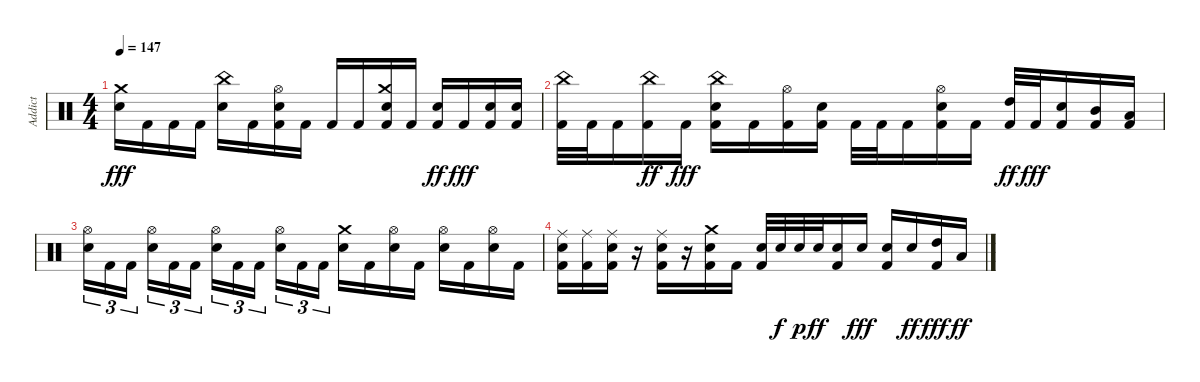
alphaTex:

\track ("Addict" "Addict") {instrument percussion}
\staff {score}
\articulation defaults
\ts (4 4)
\tempo 147
\clef neutral
\ks c
("Snare (hit) 2" "Crash medium (hit)").16{dy fff} "Kick (hit) 2".16 "Kick (hit) 2".16 "Kick (hit) 2".16 ("Snare (hit) 2" "China (hit)").16 "Kick (hit) 2".16 ("Kick (hit) 2" "Snare (hit) 2" "Hi-Hat (open)").16 "Kick (hit) 2".16 "Kick (hit) 2".16 "Kick (hit) 2".16 ("Kick (hit) 2" "Snare (hit) 2" "Crash medium (hit)").16 "Kick (hit) 2".16 ("Kick (hit) 2" "Snare (hit) 2").16{dy ff} "Kick (hit) 2".16{dy fff} ("Kick (hit) 2" "Snare (hit) 2").16 ("Kick (hit) 2" "Snare (hit) 2").16 |
("Kick (hit) 2" "China (hit)").32 "Kick (hit) 2".32 "Kick (hit) 2".16 ("Kick (hit) 2" "China (hit)").16{dy ff} "Kick (hit) 2".16{dy fff} ("Kick (hit) 2" "Snare (hit) 2" "China (hit)").16 "Kick (hit) 2".16 ("Kick (hit) 2" "Hi-Hat (open)").16 ("Kick (hit) 2" "Snare (hit) 2").16 "Kick (hit) 2".32 "Kick (hit) 2".32 "Kick (hit) 2".16 ("Kick (hit) 2" "Snare (hit) 2" "Hi-Hat (open)").16 "Kick (hit) 2".16 ("Kick (hit) 2" "High Tom (hit)").32{dy ff} "Kick (hit) 2".32{dy fff} ("Kick (hit) 2" "Snare (hit) 2").16 ("Mid Tom (hit)" "Kick (hit) 2").16 ("Kick (hit) 2" "Low Tom (hit)").16 |
("Snare (hit) 2" "Hi-Hat (open)").16{tu (3 2)} "Kick (hit) 2".16{tu (3 2)} "Kick (hit) 2".16{tu (3 2) beam splitsecondary} ("Snare (hit) 2" "Hi-Hat (open)").16{tu (3 2)} "Kick (hit) 2".16{tu (3 2)} "Kick (hit) 2".16{tu (3 2)} ("Snare (hit) 2" "Hi-Hat (open)").16{tu (3 2)} "Kick (hit) 2".16{tu (3 2)} "Kick (hit) 2".16{tu (3 2) beam splitsecondary} ("Snare (hit) 2" "Hi-Hat (open)").16{tu (3 2)} "Kick (hit) 2".16{tu (3 2)} "Kick (hit) 2".16{tu (3 2)} ("Snare (hit) 2" "Crash medium (hit)").16 "Kick (hit) 2".16 ("Snare (hit) 2" "Hi-Hat (open)").16 "Kick (hit) 2".16 ("Snare (hit) 2" "Hi-Hat (open)").16 "Kick (hit) 2".16 ("Snare (hit) 2" "Hi-Hat (open)").16 "Kick (hit) 2".16 |
("Kick (hit) 2" "Snare (hit) 2" "Ride (middle)").16 ("Kick (hit) 2" "Ride (middle)").16 ("Kick (hit) 2" "Snare (hit) 2" "Ride (middle)").16 r.16 ("Kick (hit) 2" "Snare (hit) 2" "Ride (middle)").16 r.16 ("Kick (hit) 2" "Snare (hit) 2" "Crash medium (hit)").16 "Kick (hit) 2".16 ("Kick (hit) 2" "Snare (hit) 2").32 "Snare (hit) 2".32{dy f} "Snare (hit) 2".32{dy p} "Snare (hit) 2".32{dy ff} ("Kick (hit) 2" "Snare (hit) 2").16 "Snare (hit) 2".16{dy fff} ("Kick (hit) 2" "Snare (hit) 2").16 "Snare (hit) 2".16{dy ff} ("Kick (hit) 2" "High Tom (hit)").16{dy fff} "Low Tom (hit)".16{dy ff}
